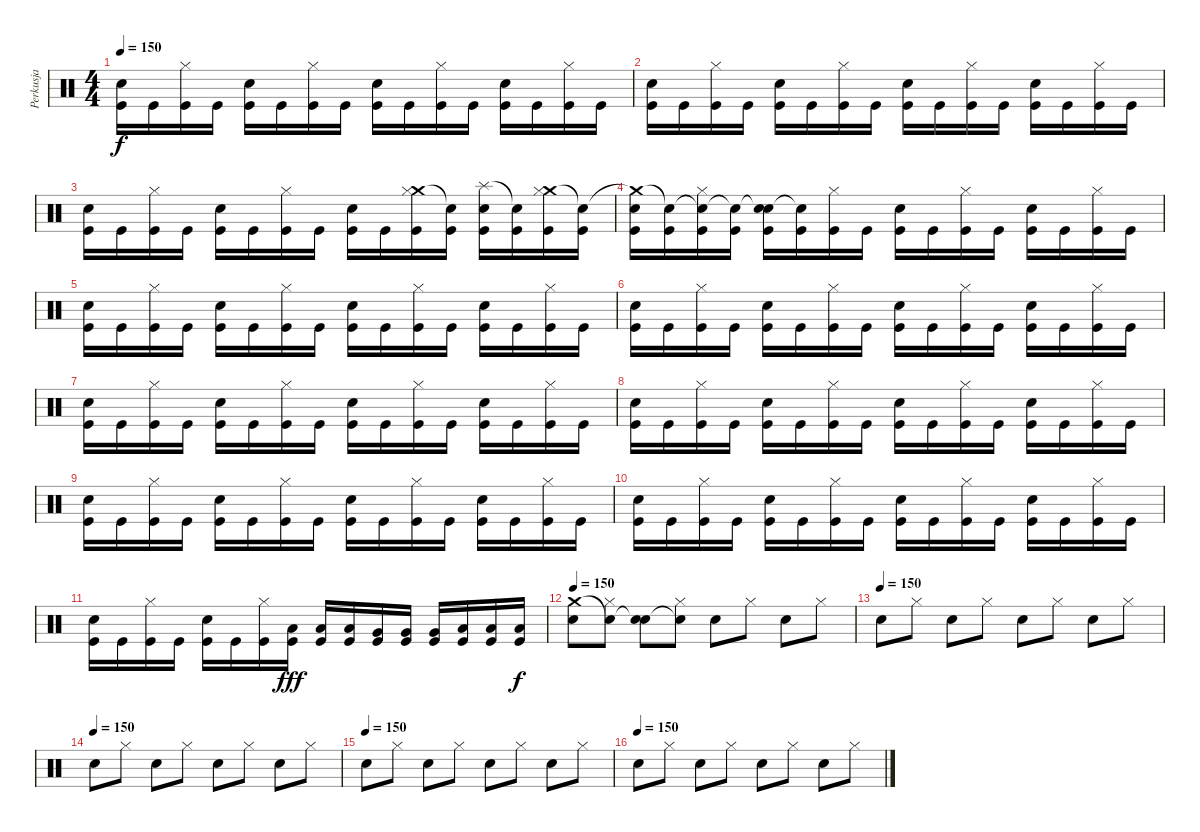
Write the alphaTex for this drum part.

\track ("Perkusja" "Perkusja") {instrument percussion}
\staff {score}
\articulation defaults
\ts (4 4)
\tempo 150
\clef neutral
\ks c
("Snare (hit) 2" "Kick (hit)").16{dy f} "Kick (hit)".16 ("Hi-Hat (closed)" "Kick (hit)").16 "Kick (hit)".16 ("Snare (hit) 2" "Kick (hit)").16 "Kick (hit)".16 ("Hi-Hat (closed)" "Kick (hit)").16 "Kick (hit)".16 ("Snare (hit) 2" "Kick (hit)").16 "Kick (hit)".16 ("Hi-Hat (closed)" "Kick (hit)").16 "Kick (hit)".16 ("Snare (hit) 2" "Kick (hit)").16 "Kick (hit)".16 ("Hi-Hat (closed)" "Kick (hit)").16 "Kick (hit)".16 |
("Snare (hit) 2" "Kick (hit)").16 "Kick (hit)".16 ("Hi-Hat (closed)" "Kick (hit)").16 "Kick (hit)".16 ("Snare (hit) 2" "Kick (hit)").16 "Kick (hit)".16 ("Hi-Hat (closed)" "Kick (hit)").16 "Kick (hit)".16 ("Snare (hit) 2" "Kick (hit)").16 "Kick (hit)".16 ("Hi-Hat (closed)" "Kick (hit)").16 "Kick (hit)".16 ("Snare (hit) 2" "Kick (hit)").16 "Kick (hit)".16 ("Hi-Hat (closed)" "Kick (hit)").16 "Kick (hit)".16 |
("Snare (hit) 2" "Kick (hit)").16 "Kick (hit)".16 ("Hi-Hat (closed)" "Kick (hit)").16 "Kick (hit)".16 ("Snare (hit) 2" "Kick (hit)").16 "Kick (hit)".16 ("Hi-Hat (closed)" "Kick (hit)").16 "Kick (hit)".16 ("Snare (hit) 2" "Kick (hit)").16 "Kick (hit)".16 ("Crash medium (hit)" "Hi-Hat (closed)" "Kick (hit)").16 ("Snare (hit)"{t} "Kick (hit)").16 ("Splash (hit)" "Snare (hit) 2" "Kick (hit)").16 ("Snare (hit)"{t} "Kick (hit)").16 ("Crash medium (hit)" "Hi-Hat (closed)" "Kick (hit)").16 ("Snare (hit)"{t} "Kick (hit)").16 |
("Crash medium (hit)"{t} "Snare (hit) 2" "Kick (hit)").16 ("Snare (hit)"{t} "Kick (hit)").16 ("Snare (hit)"{t} "Hi-Hat (closed)" "Kick (hit)").16 ("Snare (hit)"{t} "Kick (hit)").16 ("Snare (hit)"{t} "Snare (hit) 2" "Kick (hit)").16 ("Snare (hit)"{t} "Kick (hit)").16 ("Hi-Hat (closed)" "Kick (hit)").16 "Kick (hit)".16 ("Snare (hit) 2" "Kick (hit)").16 "Kick (hit)".16 ("Hi-Hat (closed)" "Kick (hit)").16 "Kick (hit)".16 ("Snare (hit) 2" "Kick (hit)").16 "Kick (hit)".16 ("Hi-Hat (closed)" "Kick (hit)").16 "Kick (hit)".16 |
("Snare (hit) 2" "Kick (hit)").16 "Kick (hit)".16 ("Hi-Hat (closed)" "Kick (hit)").16 "Kick (hit)".16 ("Snare (hit) 2" "Kick (hit)").16 "Kick (hit)".16 ("Hi-Hat (closed)" "Kick (hit)").16 "Kick (hit)".16 ("Snare (hit) 2" "Kick (hit)").16 "Kick (hit)".16 ("Hi-Hat (closed)" "Kick (hit)").16 "Kick (hit)".16 ("Snare (hit) 2" "Kick (hit)").16 "Kick (hit)".16 ("Hi-Hat (closed)" "Kick (hit)").16 "Kick (hit)".16 |
("Snare (hit) 2" "Kick (hit)").16 "Kick (hit)".16 ("Hi-Hat (closed)" "Kick (hit)").16 "Kick (hit)".16 ("Snare (hit) 2" "Kick (hit)").16 "Kick (hit)".16 ("Hi-Hat (closed)" "Kick (hit)").16 "Kick (hit)".16 ("Snare (hit) 2" "Kick (hit)").16 "Kick (hit)".16 ("Hi-Hat (closed)" "Kick (hit)").16 "Kick (hit)".16 ("Snare (hit) 2" "Kick (hit)").16 "Kick (hit)".16 ("Hi-Hat (closed)" "Kick (hit)").16 "Kick (hit)".16 |
("Snare (hit) 2" "Kick (hit)").16 "Kick (hit)".16 ("Hi-Hat (closed)" "Kick (hit)").16 "Kick (hit)".16 ("Snare (hit) 2" "Kick (hit)").16 "Kick (hit)".16 ("Hi-Hat (closed)" "Kick (hit)").16 "Kick (hit)".16 ("Snare (hit) 2" "Kick (hit)").16 "Kick (hit)".16 ("Hi-Hat (closed)" "Kick (hit)").16 "Kick (hit)".16 ("Snare (hit) 2" "Kick (hit)").16 "Kick (hit)".16 ("Hi-Hat (closed)" "Kick (hit)").16 "Kick (hit)".16 |
("Snare (hit) 2" "Kick (hit)").16 "Kick (hit)".16 ("Hi-Hat (closed)" "Kick (hit)").16 "Kick (hit)".16 ("Snare (hit) 2" "Kick (hit)").16 "Kick (hit)".16 ("Hi-Hat (closed)" "Kick (hit)").16 "Kick (hit)".16 ("Snare (hit) 2" "Kick (hit)").16 "Kick (hit)".16 ("Hi-Hat (closed)" "Kick (hit)").16 "Kick (hit)".16 ("Snare (hit) 2" "Kick (hit)").16 "Kick (hit)".16 ("Hi-Hat (closed)" "Kick (hit)").16 "Kick (hit)".16 |
("Snare (hit) 2" "Kick (hit)").16 "Kick (hit)".16 ("Hi-Hat (closed)" "Kick (hit)").16 "Kick (hit)".16 ("Snare (hit) 2" "Kick (hit)").16 "Kick (hit)".16 ("Hi-Hat (closed)" "Kick (hit)").16 "Kick (hit)".16 ("Snare (hit) 2" "Kick (hit)").16 "Kick (hit)".16 ("Hi-Hat (closed)" "Kick (hit)").16 "Kick (hit)".16 ("Snare (hit) 2" "Kick (hit)").16 "Kick (hit)".16 ("Hi-Hat (closed)" "Kick (hit)").16 "Kick (hit)".16 |
("Snare (hit) 2" "Kick (hit)").16 "Kick (hit)".16 ("Hi-Hat (closed)" "Kick (hit)").16 "Kick (hit)".16 ("Snare (hit) 2" "Kick (hit)").16 "Kick (hit)".16 ("Hi-Hat (closed)" "Kick (hit)").16 "Kick (hit)".16 ("Snare (hit) 2" "Kick (hit)").16 "Kick (hit)".16 ("Hi-Hat (closed)" "Kick (hit)").16 "Kick (hit)".16 ("Snare (hit) 2" "Kick (hit)").16 "Kick (hit)".16 ("Hi-Hat (closed)" "Kick (hit)").16 "Kick (hit)".16 |
("Snare (hit) 2" "Kick (hit)").16 "Kick (hit)".16 ("Hi-Hat (closed)" "Kick (hit)").16 "Kick (hit)".16 ("Snare (hit) 2" "Kick (hit)").16 "Kick (hit)".16 ("Hi-Hat (closed)" "Kick (hit)").16 ("Low Tom (hit)" "Kick (hit)").16{dy fff} ("Low Tom (hit)" "Kick (hit)").16 ("Low Tom (hit)" "Kick (hit)").16 ("Very Low Tom (hit)" "Kick (hit)").16 ("Very Low Tom (hit)" "Kick (hit)").16 ("Very Low Tom (hit)" "Kick (hit)").16 ("Low Floor Tom (hit)" "Kick (hit)").16 ("Low Floor Tom (hit)" "Kick (hit)").16 ("Low Floor Tom (hit)" "Kick (hit)").16{dy f} |
\tempo 150
("Snare (hit) 2" "Crash medium (hit)").8 ("Hi-Hat (closed)" "Snare (hit)"{t}).8 ("Snare (hit) 2" "Snare (hit)"{t}).8 ("Hi-Hat (closed)" "Snare (hit)"{t}).8 "Snare (hit) 2".8 "Hi-Hat (closed)".8 "Snare (hit) 2".8 "Hi-Hat (closed)".8 |
\tempo (150)
"Snare (hit) 2".8 "Hi-Hat (closed)".8 "Snare (hit) 2".8 "Hi-Hat (closed)".8 "Snare (hit) 2".8 "Hi-Hat (closed)".8 "Snare (hit) 2".8 "Hi-Hat (closed)".8 |
\tempo (150)
"Snare (hit) 2".8 "Hi-Hat (closed)".8 "Snare (hit) 2".8 "Hi-Hat (closed)".8 "Snare (hit) 2".8 "Hi-Hat (closed)".8 "Snare (hit) 2".8 "Hi-Hat (closed)".8 |
\tempo (150)
"Snare (hit) 2".8 "Hi-Hat (closed)".8 "Snare (hit) 2".8 "Hi-Hat (closed)".8 "Snare (hit) 2".8 "Hi-Hat (closed)".8 "Snare (hit) 2".8 "Hi-Hat (closed)".8 |
\tempo (150)
"Snare (hit) 2".8 "Hi-Hat (closed)".8 "Snare (hit) 2".8 "Hi-Hat (closed)".8 "Snare (hit) 2".8 "Hi-Hat (closed)".8 "Snare (hit) 2".8 "Hi-Hat (closed)".8
